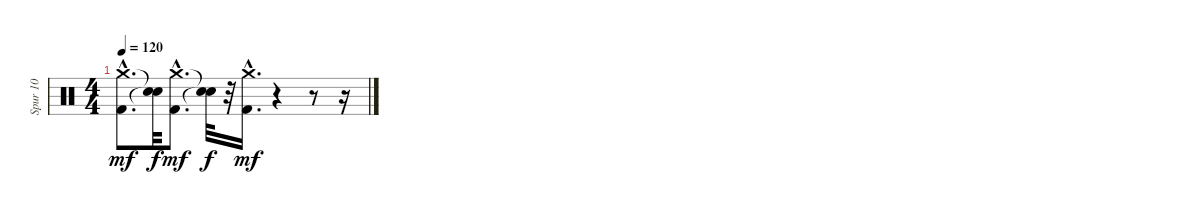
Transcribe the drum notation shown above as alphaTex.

\track ("Spur 10" "Spur 10") {instrument percussion}
\staff {score}
\articulation defaults
\ts (4 4)
\tempo 120
\clef neutral
\ks c
("Crash medium (hit)"{hac} "Kick (hit) 2"{hac}).8{d dy mf} ("Snare (hit)"{t} "Snare (hit)"{t}).32{dy f} ("Crash medium (hit)"{hac} "Kick (hit) 2"{hac}).8{d dy mf} ("Snare (hit)"{t} "Snare (hit)"{t}).32{dy f} r.32 ("Crash medium (hit)"{hac} "Kick (hit) 2"{hac}).16{d dy mf} r.4 r.8 r.16
